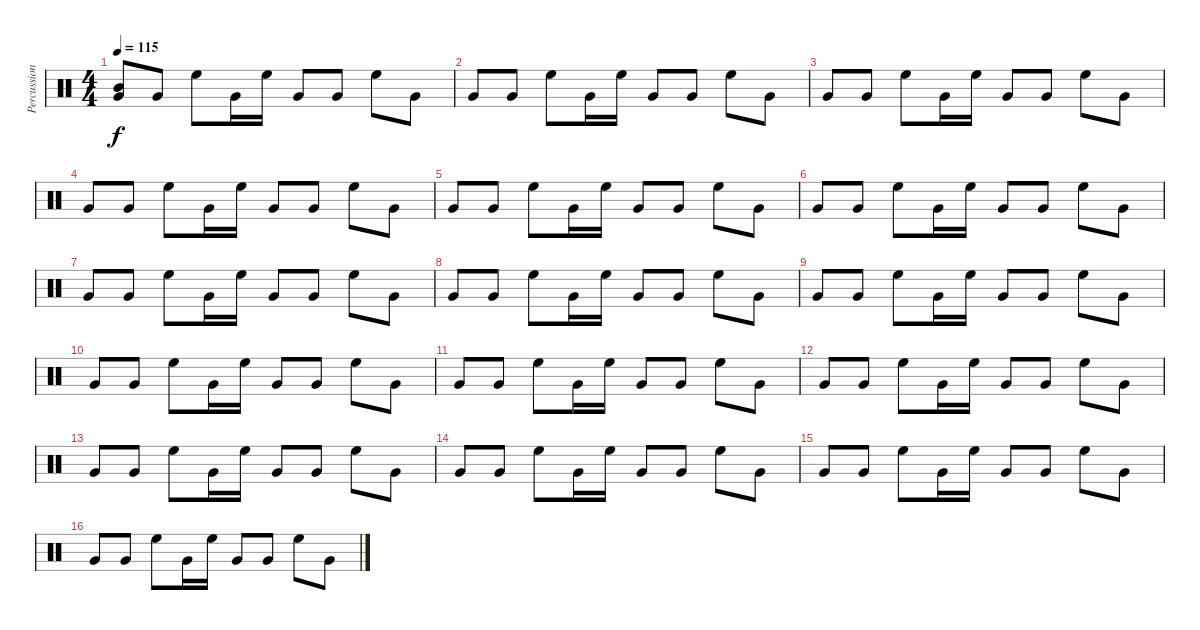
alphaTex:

\track ("Percussion" "Percussion") {instrument percussion}
\staff {score}
\articulation defaults
\ts (4 4)
\tempo 115
\clef neutral
\ks c
("Mid Tom (hit)" "Very Low Tom (hit)").8{dy f volume 0} "Very Low Tom (hit)".8{volume 13} "High Floor Tom (hit)".8 "Very Low Tom (hit)".16 "High Floor Tom (hit)".16 "Very Low Tom (hit)".8 "Very Low Tom (hit)".8 "High Floor Tom (hit)".8 "Very Low Tom (hit)".8 |
"Very Low Tom (hit)".8 "Very Low Tom (hit)".8 "High Floor Tom (hit)".8 "Very Low Tom (hit)".16 "High Floor Tom (hit)".16 "Very Low Tom (hit)".8 "Very Low Tom (hit)".8 "High Floor Tom (hit)".8 "Very Low Tom (hit)".8 |
"Very Low Tom (hit)".8 "Very Low Tom (hit)".8 "High Floor Tom (hit)".8 "Very Low Tom (hit)".16 "High Floor Tom (hit)".16 "Very Low Tom (hit)".8 "Very Low Tom (hit)".8 "High Floor Tom (hit)".8 "Very Low Tom (hit)".8 |
"Very Low Tom (hit)".8 "Very Low Tom (hit)".8 "High Floor Tom (hit)".8 "Very Low Tom (hit)".16 "High Floor Tom (hit)".16 "Very Low Tom (hit)".8 "Very Low Tom (hit)".8 "High Floor Tom (hit)".8 "Very Low Tom (hit)".8 |
"Very Low Tom (hit)".8 "Very Low Tom (hit)".8 "High Floor Tom (hit)".8 "Very Low Tom (hit)".16 "High Floor Tom (hit)".16 "Very Low Tom (hit)".8 "Very Low Tom (hit)".8 "High Floor Tom (hit)".8 "Very Low Tom (hit)".8 |
"Very Low Tom (hit)".8 "Very Low Tom (hit)".8 "High Floor Tom (hit)".8 "Very Low Tom (hit)".16 "High Floor Tom (hit)".16 "Very Low Tom (hit)".8 "Very Low Tom (hit)".8 "High Floor Tom (hit)".8 "Very Low Tom (hit)".8 |
"Very Low Tom (hit)".8 "Very Low Tom (hit)".8 "High Floor Tom (hit)".8 "Very Low Tom (hit)".16 "High Floor Tom (hit)".16 "Very Low Tom (hit)".8 "Very Low Tom (hit)".8 "High Floor Tom (hit)".8 "Very Low Tom (hit)".8 |
"Very Low Tom (hit)".8 "Very Low Tom (hit)".8 "High Floor Tom (hit)".8 "Very Low Tom (hit)".16 "High Floor Tom (hit)".16 "Very Low Tom (hit)".8 "Very Low Tom (hit)".8 "High Floor Tom (hit)".8 "Very Low Tom (hit)".8 |
"Very Low Tom (hit)".8 "Very Low Tom (hit)".8 "High Floor Tom (hit)".8 "Very Low Tom (hit)".16 "High Floor Tom (hit)".16 "Very Low Tom (hit)".8 "Very Low Tom (hit)".8 "High Floor Tom (hit)".8 "Very Low Tom (hit)".8 |
"Very Low Tom (hit)".8 "Very Low Tom (hit)".8 "High Floor Tom (hit)".8 "Very Low Tom (hit)".16 "High Floor Tom (hit)".16 "Very Low Tom (hit)".8 "Very Low Tom (hit)".8 "High Floor Tom (hit)".8 "Very Low Tom (hit)".8 |
"Very Low Tom (hit)".8 "Very Low Tom (hit)".8 "High Floor Tom (hit)".8 "Very Low Tom (hit)".16 "High Floor Tom (hit)".16 "Very Low Tom (hit)".8 "Very Low Tom (hit)".8 "High Floor Tom (hit)".8 "Very Low Tom (hit)".8 |
"Very Low Tom (hit)".8 "Very Low Tom (hit)".8 "High Floor Tom (hit)".8 "Very Low Tom (hit)".16 "High Floor Tom (hit)".16 "Very Low Tom (hit)".8 "Very Low Tom (hit)".8 "High Floor Tom (hit)".8 "Very Low Tom (hit)".8 |
"Very Low Tom (hit)".8 "Very Low Tom (hit)".8 "High Floor Tom (hit)".8 "Very Low Tom (hit)".16 "High Floor Tom (hit)".16 "Very Low Tom (hit)".8 "Very Low Tom (hit)".8 "High Floor Tom (hit)".8 "Very Low Tom (hit)".8 |
"Very Low Tom (hit)".8 "Very Low Tom (hit)".8 "High Floor Tom (hit)".8 "Very Low Tom (hit)".16 "High Floor Tom (hit)".16 "Very Low Tom (hit)".8 "Very Low Tom (hit)".8 "High Floor Tom (hit)".8 "Very Low Tom (hit)".8 |
"Very Low Tom (hit)".8 "Very Low Tom (hit)".8 "High Floor Tom (hit)".8 "Very Low Tom (hit)".16 "High Floor Tom (hit)".16 "Very Low Tom (hit)".8 "Very Low Tom (hit)".8 "High Floor Tom (hit)".8 "Very Low Tom (hit)".8 |
"Very Low Tom (hit)".8 "Very Low Tom (hit)".8 "High Floor Tom (hit)".8 "Very Low Tom (hit)".16 "High Floor Tom (hit)".16 "Very Low Tom (hit)".8 "Very Low Tom (hit)".8 "High Floor Tom (hit)".8 "Very Low Tom (hit)".8
